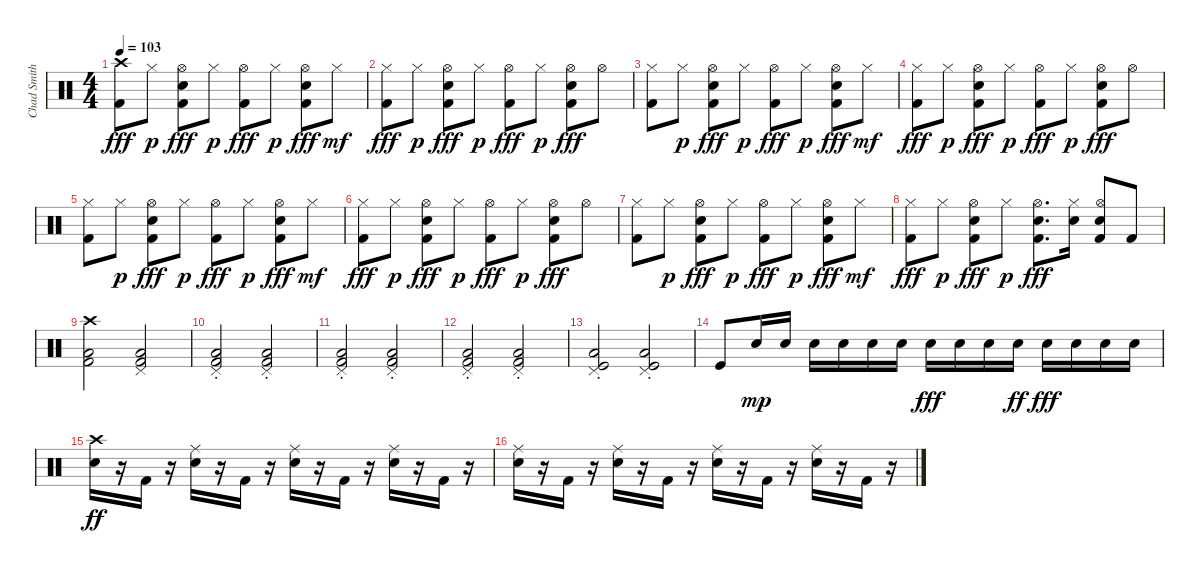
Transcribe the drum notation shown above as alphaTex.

\track ("Chad Smith - Drums" "Chad Smith") {instrument percussion}
\staff {score}
\articulation defaults
\ts (4 4)
\tempo 103
\clef neutral
\ks c
("Crash high (hit)" "Kick (hit) 2").8{dy fff} "Hi-Hat (closed)".8{dy p} ("Hi-Hat (open)" "Snare (hit) 2" "Kick (hit) 2").8{dy fff} "Hi-Hat (closed)".8{dy p} ("Hi-Hat (open)" "Kick (hit) 2").8{dy fff} "Hi-Hat (closed)".8{dy p} ("Hi-Hat (open)" "Snare (hit) 2" "Kick (hit) 2").8{dy fff} "Hi-Hat (closed)".8{dy mf} |
("Hi-Hat (closed)" "Kick (hit) 2").8{dy fff} "Hi-Hat (closed)".8{dy p} ("Hi-Hat (open)" "Snare (hit) 2" "Kick (hit) 2").8{dy fff} "Hi-Hat (closed)".8{dy p} ("Hi-Hat (open)" "Kick (hit) 2").8{dy fff} "Hi-Hat (closed)".8{dy p} ("Hi-Hat (open)" "Snare (hit) 2" "Kick (hit) 2").8{dy fff} "Hi-Hat (open)".8 |
("Hi-Hat (closed)" "Kick (hit) 2").8 "Hi-Hat (closed)".8{dy p} ("Hi-Hat (open)" "Snare (hit) 2" "Kick (hit) 2").8{dy fff} "Hi-Hat (closed)".8{dy p} ("Hi-Hat (open)" "Kick (hit) 2").8{dy fff} "Hi-Hat (closed)".8{dy p} ("Hi-Hat (open)" "Snare (hit) 2" "Kick (hit) 2").8{dy fff} "Hi-Hat (closed)".8{dy mf} |
("Hi-Hat (closed)" "Kick (hit) 2").8{dy fff} "Hi-Hat (closed)".8{dy p} ("Hi-Hat (open)" "Snare (hit) 2" "Kick (hit) 2").8{dy fff} "Hi-Hat (closed)".8{dy p} ("Hi-Hat (open)" "Kick (hit) 2").8{dy fff} "Hi-Hat (closed)".8{dy p} ("Hi-Hat (open)" "Snare (hit) 2" "Kick (hit) 2").8{dy fff} "Hi-Hat (open)".8 |
("Hi-Hat (closed)" "Kick (hit) 2").8 "Hi-Hat (closed)".8{dy p} ("Hi-Hat (open)" "Snare (hit) 2" "Kick (hit) 2").8{dy fff} "Hi-Hat (closed)".8{dy p} ("Hi-Hat (open)" "Kick (hit) 2").8{dy fff} "Hi-Hat (closed)".8{dy p} ("Hi-Hat (open)" "Snare (hit) 2" "Kick (hit) 2").8{dy fff} "Hi-Hat (closed)".8{dy mf} |
("Hi-Hat (closed)" "Kick (hit) 2").8{dy fff} "Hi-Hat (closed)".8{dy p} ("Hi-Hat (open)" "Snare (hit) 2" "Kick (hit) 2").8{dy fff} "Hi-Hat (closed)".8{dy p} ("Hi-Hat (open)" "Kick (hit) 2").8{dy fff} "Hi-Hat (closed)".8{dy p} ("Hi-Hat (open)" "Snare (hit) 2" "Kick (hit) 2").8{dy fff} "Hi-Hat (open)".8 |
("Hi-Hat (closed)" "Kick (hit) 2").8 "Hi-Hat (closed)".8{dy p} ("Hi-Hat (open)" "Snare (hit) 2" "Kick (hit) 2").8{dy fff} "Hi-Hat (closed)".8{dy p} ("Hi-Hat (open)" "Kick (hit) 2").8{dy fff} "Hi-Hat (closed)".8{dy p} ("Hi-Hat (open)" "Snare (hit) 2" "Kick (hit) 2").8{dy fff} "Hi-Hat (closed)".8{dy mf} |
("Hi-Hat (closed)" "Kick (hit) 2").8{dy fff} "Hi-Hat (closed)".8{dy p} ("Hi-Hat (open)" "Snare (hit) 2" "Kick (hit) 2").8{dy fff} "Hi-Hat (closed)".8{dy p} ("Hi-Hat (open)" "Snare (hit) 2" "Kick (hit) 2").8{d dy fff} ("Hi-Hat (closed)" "Snare (hit) 2").16 ("Hi-Hat (open)" "Snare (hit) 2" "Kick (hit) 2").8 "Kick (hit) 2".8 |
("Low Tom (hit)" "Crash high (hit)" "Kick (hit) 2").2 ("Low Tom (hit)" "Pedal Hi-Hat (hit)" "Kick (hit) 2").2 |
("Low Tom (hit)" "Pedal Hi-Hat (hit)"{st} "Kick (hit) 2").2 ("Low Tom (hit)" "Pedal Hi-Hat (hit)"{st} "Kick (hit) 2").2 |
("Low Tom (hit)" "Pedal Hi-Hat (hit)"{st} "Kick (hit) 2").2 ("Low Tom (hit)" "Pedal Hi-Hat (hit)"{st} "Kick (hit) 2").2 |
("Low Tom (hit)" "Pedal Hi-Hat (hit)"{st} "Kick (hit) 2").2 ("Low Tom (hit)" "Pedal Hi-Hat (hit)"{st} "Kick (hit) 2").2 |
("Low Tom (hit)" "Pedal Hi-Hat (hit)"{st} "Kick (hit)").2 ("Low Tom (hit)" "Pedal Hi-Hat (hit)"{st} "Kick (hit)").2 |
"Kick (hit)".8 "Snare (hit) 2".16{dy mp} "Snare (hit) 2".16 "Snare (hit) 2".16 "Snare (hit) 2".16 "Snare (hit) 2".16 "Snare (hit) 2".16 "Snare (hit) 2".16{dy fff} "Snare (hit) 2".16 "Snare (hit) 2".16 "Snare (hit) 2".16{dy ff} "Snare (hit) 2".16{dy fff} "Snare (hit) 2".16 "Snare (hit) 2".16 "Snare (hit) 2".16 |
("Crash high (hit)" "Snare (hit) 2").16{dy ff} r.16 "Kick (hit) 2".16 r.16 ("Ride (middle)" "Snare (hit) 2").16 r.16 "Kick (hit) 2".16 r.16 ("Ride (middle)" "Snare (hit) 2").16 r.16 "Kick (hit) 2".16 r.16 ("Ride (middle)" "Snare (hit) 2").16 r.16 "Kick (hit) 2".16 r.16 |
("Ride (middle)" "Snare (hit) 2").16 r.16 "Kick (hit) 2".16 r.16 ("Ride (middle)" "Snare (hit) 2").16 r.16 "Kick (hit) 2".16 r.16 ("Ride (middle)" "Snare (hit) 2").16 r.16 "Kick (hit) 2".16 r.16 ("Ride (middle)" "Snare (hit) 2").16 r.16 "Kick (hit) 2".16 r.16
